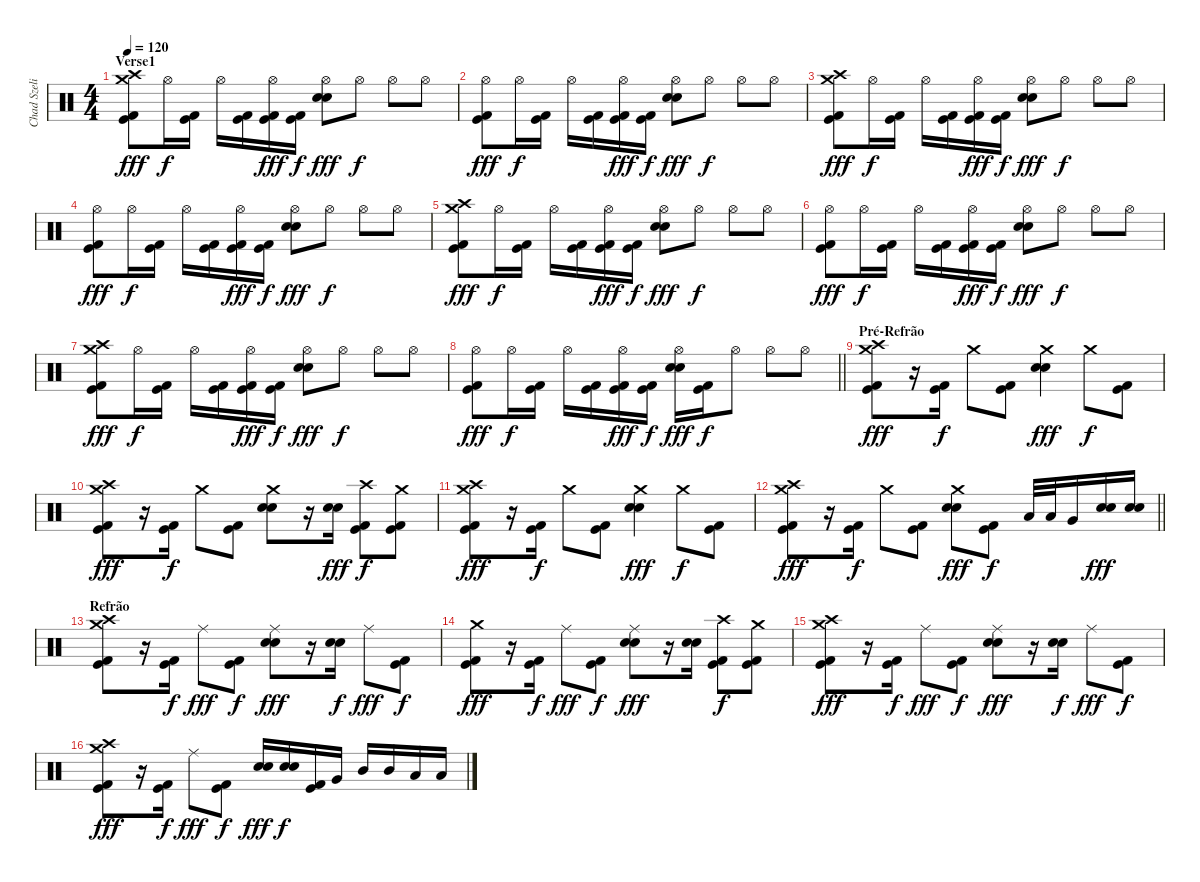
\track ("Chad Szeliga" "Chad Szeli") {instrument percussion}
\staff {score}
\articulation defaults
\ts (4 4)
\section ("" "Verse1")
\tempo 120
\clef neutral
\ks c
("Crash high (hit)" "Kick (hit) 2" "Kick (hit)" "Crash medium (hit)").8{dy fff} "Hi-Hat (open)".16{dy f} ("Kick (hit) 2" "Kick (hit)").16 "Hi-Hat (open)".16 ("Kick (hit) 2" "Kick (hit)").16 ("Kick (hit) 2" "Kick (hit)" "Hi-Hat (open)").16{dy fff} ("Kick (hit) 2" "Kick (hit)").16{dy f} ("Snare (hit) 2" "Snare (hit) 2" "Hi-Hat (open)").8{dy fff} "Hi-Hat (open)".8{dy f} "Hi-Hat (open)".8 "Hi-Hat (open)".8 |
("Kick (hit) 2" "Kick (hit)" "Hi-Hat (open)").8{dy fff} "Hi-Hat (open)".16{dy f} ("Kick (hit) 2" "Kick (hit)").16 "Hi-Hat (open)".16 ("Kick (hit) 2" "Kick (hit)").16 ("Kick (hit) 2" "Kick (hit)" "Hi-Hat (open)").16{dy fff} ("Kick (hit) 2" "Kick (hit)").16{dy f} ("Snare (hit) 2" "Snare (hit) 2" "Hi-Hat (open)").8{dy fff} "Hi-Hat (open)".8{dy f} "Hi-Hat (open)".8 "Hi-Hat (open)".8 |
("Crash high (hit)" "Kick (hit) 2" "Kick (hit)" "Crash medium (hit)").8{dy fff} "Hi-Hat (open)".16{dy f} ("Kick (hit) 2" "Kick (hit)").16 "Hi-Hat (open)".16 ("Kick (hit) 2" "Kick (hit)").16 ("Kick (hit) 2" "Kick (hit)" "Hi-Hat (open)").16{dy fff} ("Kick (hit) 2" "Kick (hit)").16{dy f} ("Snare (hit) 2" "Snare (hit) 2" "Hi-Hat (open)").8{dy fff} "Hi-Hat (open)".8{dy f} "Hi-Hat (open)".8 "Hi-Hat (open)".8 |
("Kick (hit) 2" "Kick (hit)" "Hi-Hat (open)").8{dy fff} "Hi-Hat (open)".16{dy f} ("Kick (hit) 2" "Kick (hit)").16 "Hi-Hat (open)".16 ("Kick (hit) 2" "Kick (hit)").16 ("Kick (hit) 2" "Kick (hit)" "Hi-Hat (open)").16{dy fff} ("Kick (hit) 2" "Kick (hit)").16{dy f} ("Snare (hit) 2" "Snare (hit) 2" "Hi-Hat (open)").8{dy fff} "Hi-Hat (open)".8{dy f} "Hi-Hat (open)".8 "Hi-Hat (open)".8 |
("Crash high (hit)" "Kick (hit) 2" "Kick (hit)" "Crash medium (hit)").8{dy fff} "Hi-Hat (open)".16{dy f} ("Kick (hit) 2" "Kick (hit)").16 "Hi-Hat (open)".16 ("Kick (hit) 2" "Kick (hit)").16 ("Kick (hit) 2" "Kick (hit)" "Hi-Hat (open)").16{dy fff} ("Kick (hit) 2" "Kick (hit)").16{dy f} ("Snare (hit) 2" "Snare (hit) 2" "Hi-Hat (open)").8{dy fff} "Hi-Hat (open)".8{dy f} "Hi-Hat (open)".8 "Hi-Hat (open)".8 |
("Kick (hit) 2" "Kick (hit)" "Hi-Hat (open)").8{dy fff} "Hi-Hat (open)".16{dy f} ("Kick (hit) 2" "Kick (hit)").16 "Hi-Hat (open)".16 ("Kick (hit) 2" "Kick (hit)").16 ("Kick (hit) 2" "Kick (hit)" "Hi-Hat (open)").16{dy fff} ("Kick (hit) 2" "Kick (hit)").16{dy f} ("Snare (hit) 2" "Snare (hit) 2" "Hi-Hat (open)").8{dy fff} "Hi-Hat (open)".8{dy f} "Hi-Hat (open)".8 "Hi-Hat (open)".8 |
("Crash high (hit)" "Kick (hit) 2" "Kick (hit)" "Crash medium (hit)").8{dy fff} "Hi-Hat (open)".16{dy f} ("Kick (hit) 2" "Kick (hit)").16 "Hi-Hat (open)".16 ("Kick (hit) 2" "Kick (hit)").16 ("Kick (hit) 2" "Kick (hit)" "Hi-Hat (open)").16{dy fff} ("Kick (hit) 2" "Kick (hit)").16{dy f} ("Snare (hit) 2" "Snare (hit) 2" "Hi-Hat (open)").8{dy fff} "Hi-Hat (open)".8{dy f} "Hi-Hat (open)".8 "Hi-Hat (open)".8 |
\barLineRight lightlight
("Kick (hit) 2" "Kick (hit)" "Hi-Hat (open)").8{dy fff} "Hi-Hat (open)".16{dy f} ("Kick (hit) 2" "Kick (hit)").16 "Hi-Hat (open)".16 ("Kick (hit) 2" "Kick (hit)").16 ("Kick (hit) 2" "Kick (hit)" "Hi-Hat (open)").16{dy fff} ("Kick (hit) 2" "Kick (hit)").16{dy f} ("Snare (hit) 2" "Snare (hit) 2" "Hi-Hat (open)").16{dy fff} ("Kick (hit) 2" "Kick (hit)").16{dy f} "Hi-Hat (open)".8 "Hi-Hat (open)".8 "Hi-Hat (open)".8 |
\section ("" "Pré-Refrão")
("Crash high (hit)" "Kick (hit) 2" "Kick (hit)" "Crash medium (hit)").8{dy fff} r.16 ("Kick (hit) 2" "Kick (hit)").16{dy f beam Down} "Crash medium (hit)".8 ("Kick (hit) 2" "Kick (hit)").8 ("Crash medium (hit)" "Snare (hit) 2" "Snare (hit) 2").4{dy fff} "Crash medium (hit)".8{dy f} ("Kick (hit) 2" "Kick (hit)").8 |
("Crash high (hit)" "Kick (hit) 2" "Kick (hit)" "Crash medium (hit)").8{dy fff} r.16 ("Kick (hit) 2" "Kick (hit)").16{dy f beam Down} "Crash medium (hit)".8 ("Kick (hit) 2" "Kick (hit)").8 ("Crash medium (hit)" "Snare (hit) 2" "Snare (hit) 2").8 r.16 ("Snare (hit) 2" "Snare (hit) 2").16{dy fff} ("Crash high (hit)" "Kick (hit) 2" "Kick (hit)").8{dy f} ("Crash medium (hit)" "Kick (hit) 2" "Kick (hit)").8 |
("Crash high (hit)" "Kick (hit) 2" "Kick (hit)" "Crash medium (hit)").8{dy fff} r.16 ("Kick (hit) 2" "Kick (hit)").16{dy f beam Down} "Crash medium (hit)".8 ("Kick (hit) 2" "Kick (hit)").8 ("Crash medium (hit)" "Snare (hit) 2" "Snare (hit) 2").4{dy fff} "Crash medium (hit)".8{dy f} ("Kick (hit) 2" "Kick (hit)").8 |
\barLineRight lightlight
("Crash high (hit)" "Kick (hit) 2" "Kick (hit)" "Crash medium (hit)").8{dy fff} r.16 ("Kick (hit) 2" "Kick (hit)").16{dy f beam Down} "Crash medium (hit)".8 ("Kick (hit) 2" "Kick (hit)").8 ("Crash medium (hit)" "Snare (hit) 2" "Snare (hit) 2").8{dy fff} ("Kick (hit) 2" "Kick (hit)").8{dy f} "Low Tom (hit)".32 "Low Tom (hit)".32 "Very Low Tom (hit)".16 ("Snare (hit) 2" "Snare (hit) 2").16{dy fff} ("Snare (hit) 2" "Snare (hit) 2").16 |
\section ("" "Refrão")
("Crash high (hit)" "Kick (hit) 2" "Kick (hit)" "Crash medium (hit)").8 r.16 ("Kick (hit) 2" "Kick (hit)").16{dy f beam Down} "Ride (middle)".8{dy fff} ("Kick (hit) 2" "Kick (hit)").8{dy f} ("Ride (middle)" "Snare (hit) 2" "Snare (hit) 2").8{dy fff} r.16 ("Snare (hit) 2" "Snare (hit) 2").16{dy f} "Ride (middle)".8{dy fff} ("Kick (hit) 2" "Kick (hit)").8{dy f} |
("Crash medium (hit)" "Kick (hit) 2" "Kick (hit)").8{dy fff} r.16 ("Kick (hit) 2" "Kick (hit)").16{dy f beam Down} "Ride (middle)".8{dy fff} ("Kick (hit) 2" "Kick (hit)").8{dy f} ("Ride (middle)" "Snare (hit) 2" "Snare (hit) 2").8{dy fff} r.16 ("Snare (hit) 2" "Snare (hit) 2").16 ("Crash high (hit)" "Kick (hit) 2" "Kick (hit)").8{dy f} ("Crash medium (hit)" "Kick (hit) 2" "Kick (hit)").8 |
("Crash high (hit)" "Kick (hit) 2" "Kick (hit)" "Crash medium (hit)").8{dy fff} r.16 ("Kick (hit) 2" "Kick (hit)").16{dy f beam Down} "Ride (middle)".8{dy fff} ("Kick (hit) 2" "Kick (hit)").8{dy f} ("Ride (middle)" "Snare (hit) 2" "Snare (hit) 2").8{dy fff} r.16 ("Snare (hit) 2" "Snare (hit) 2").16{dy f} "Ride (middle)".8{dy fff} ("Kick (hit) 2" "Kick (hit)").8{dy f} |
("Crash high (hit)" "Kick (hit) 2" "Kick (hit)" "Crash medium (hit)").8{dy fff} r.16 ("Kick (hit) 2" "Kick (hit)").16{dy f beam Down} "Ride (middle)".8{dy fff} ("Kick (hit) 2" "Kick (hit)").8{dy f} ("Snare (hit) 2" "Snare (hit) 2").16{dy fff} ("Snare (hit) 2" "Snare (hit) 2").16{dy f} ("Kick (hit) 2" "Kick (hit)").16 "Very Low Tom (hit)".16 "Mid Tom (hit)".16 "Mid Tom (hit)".16 "Low Tom (hit)".16 "Low Tom (hit)".16
